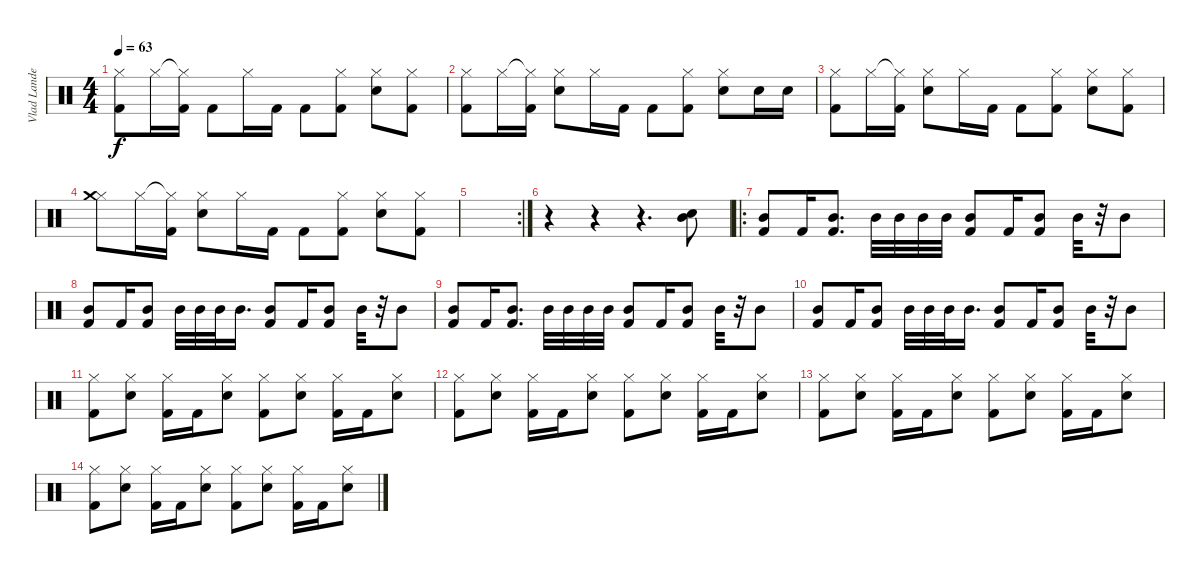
\track ("Vlad Landeros" "Vlad Lande") {instrument percussion}
\staff {score}
\articulation defaults
\ts (4 4)
\tempo 63
\clef neutral
\ks c
("Hi-Hat (closed)" "Kick (hit) 2").8{dy f} "Hi-Hat (closed)".16 ("Hi-Hat (closed)"{t} "Kick (hit) 2").16 "Kick (hit) 2".8 "Hi-Hat (closed)".16 "Kick (hit) 2".16 "Kick (hit) 2".8 ("Hi-Hat (closed)" "Kick (hit) 2").8 ("Hi-Hat (closed)" "Electric Snare (hit)").8 ("Hi-Hat (closed)" "Kick (hit) 2").8 |
("Hi-Hat (closed)" "Kick (hit) 2").8 "Hi-Hat (closed)".16 ("Hi-Hat (closed)"{t} "Kick (hit) 2").16 ("Hi-Hat (closed)" "Electric Snare (hit)").8 "Hi-Hat (closed)".16 "Kick (hit) 2".16 "Kick (hit) 2".8 ("Hi-Hat (closed)" "Kick (hit) 2").8 ("Hi-Hat (closed)" "Electric Snare (hit)").8 "Electric Snare (hit)".16 "Electric Snare (hit)".16 |
("Hi-Hat (closed)" "Kick (hit) 2").8 "Hi-Hat (closed)".16 ("Hi-Hat (closed)"{t} "Kick (hit) 2").16 ("Hi-Hat (closed)" "Electric Snare (hit)").8 "Hi-Hat (closed)".16 "Kick (hit) 2".16 "Kick (hit) 2".8 ("Hi-Hat (closed)" "Kick (hit) 2").8 ("Hi-Hat (closed)" "Electric Snare (hit)").8 ("Hi-Hat (closed)" "Kick (hit) 2").8 |
("Hi-Hat (closed)" "Crash medium (hit)").8 "Hi-Hat (closed)".16 ("Hi-Hat (closed)"{t} "Kick (hit) 2").16 ("Hi-Hat (closed)" "Electric Snare (hit)").8 "Hi-Hat (closed)".16 "Kick (hit) 2".16 "Kick (hit) 2".8 ("Hi-Hat (closed)" "Kick (hit) 2").8 ("Hi-Hat (closed)" "Electric Snare (hit)").8 ("Hi-Hat (closed)" "Kick (hit) 2").8 |
\rc 2
|
r.4 r.4 r.4{d} ("Electric Snare (hit)" "Mid Tom (hit)").8 |
\ro
("Kick (hit) 2" "Mid Tom (hit)").8 "Kick (hit) 2".16 ("Kick (hit) 2" "Mid Tom (hit)").8{d} "Mid Tom (hit)".32 "Mid Tom (hit)".32 "Mid Tom (hit)".32 "Mid Tom (hit)".32 ("Kick (hit) 2" "Mid Tom (hit)").8 "Kick (hit) 2".16 ("Kick (hit) 2" "Mid Tom (hit)").8 "Mid Tom (hit)".32 r.32 "Mid Tom (hit)".8 |
("Kick (hit) 2" "Mid Tom (hit)").8 "Kick (hit) 2".16 ("Kick (hit) 2" "Mid Tom (hit)").8 "Mid Tom (hit)".32 "Mid Tom (hit)".32 "Mid Tom (hit)".32 "Mid Tom (hit)".16{d} ("Kick (hit) 2" "Mid Tom (hit)").8 "Kick (hit) 2".16 ("Kick (hit) 2" "Mid Tom (hit)").8 "Mid Tom (hit)".32 r.32 "Mid Tom (hit)".8 |
("Kick (hit) 2" "Mid Tom (hit)").8 "Kick (hit) 2".16 ("Kick (hit) 2" "Mid Tom (hit)").8{d} "Mid Tom (hit)".32 "Mid Tom (hit)".32 "Mid Tom (hit)".32 "Mid Tom (hit)".32 ("Kick (hit) 2" "Mid Tom (hit)").8 "Kick (hit) 2".16 ("Kick (hit) 2" "Mid Tom (hit)").8 "Mid Tom (hit)".32 r.32 "Mid Tom (hit)".8 |
("Kick (hit) 2" "Mid Tom (hit)").8 "Kick (hit) 2".16 ("Kick (hit) 2" "Mid Tom (hit)").8 "Mid Tom (hit)".32 "Mid Tom (hit)".32 "Mid Tom (hit)".32 "Mid Tom (hit)".16{d} ("Kick (hit) 2" "Mid Tom (hit)").8 "Kick (hit) 2".16 ("Kick (hit) 2" "Mid Tom (hit)").8 "Mid Tom (hit)".32 r.32 "Mid Tom (hit)".8 |
("Kick (hit) 2" "Hi-Hat (closed)").8 ("Electric Snare (hit)" "Hi-Hat (closed)").8 ("Kick (hit) 2" "Hi-Hat (closed)").16 "Kick (hit) 2".16 ("Electric Snare (hit)" "Hi-Hat (closed)").8 ("Kick (hit) 2" "Hi-Hat (closed)").8 ("Electric Snare (hit)" "Hi-Hat (closed)").8 ("Kick (hit) 2" "Hi-Hat (closed)").16 "Kick (hit) 2".16 ("Electric Snare (hit)" "Hi-Hat (closed)").8 |
("Kick (hit) 2" "Hi-Hat (closed)").8 ("Electric Snare (hit)" "Hi-Hat (closed)").8 ("Kick (hit) 2" "Hi-Hat (closed)").16 "Kick (hit) 2".16 ("Electric Snare (hit)" "Hi-Hat (closed)").8 ("Kick (hit) 2" "Hi-Hat (closed)").8 ("Electric Snare (hit)" "Hi-Hat (closed)").8 ("Kick (hit) 2" "Hi-Hat (closed)").16 "Kick (hit) 2".16 ("Electric Snare (hit)" "Hi-Hat (closed)").8 |
("Kick (hit) 2" "Hi-Hat (closed)").8 ("Electric Snare (hit)" "Hi-Hat (closed)").8 ("Kick (hit) 2" "Hi-Hat (closed)").16 "Kick (hit) 2".16 ("Electric Snare (hit)" "Hi-Hat (closed)").8 ("Kick (hit) 2" "Hi-Hat (closed)").8 ("Electric Snare (hit)" "Hi-Hat (closed)").8 ("Kick (hit) 2" "Hi-Hat (closed)").16 "Kick (hit) 2".16 ("Electric Snare (hit)" "Hi-Hat (closed)").8 |
("Kick (hit) 2" "Hi-Hat (closed)").8 ("Electric Snare (hit)" "Hi-Hat (closed)").8 ("Kick (hit) 2" "Hi-Hat (closed)").16 "Kick (hit) 2".16 ("Electric Snare (hit)" "Hi-Hat (closed)").8 ("Kick (hit) 2" "Hi-Hat (closed)").8 ("Electric Snare (hit)" "Hi-Hat (closed)").8 ("Kick (hit) 2" "Hi-Hat (closed)").16 "Kick (hit) 2".16 ("Electric Snare (hit)" "Hi-Hat (closed)").8
